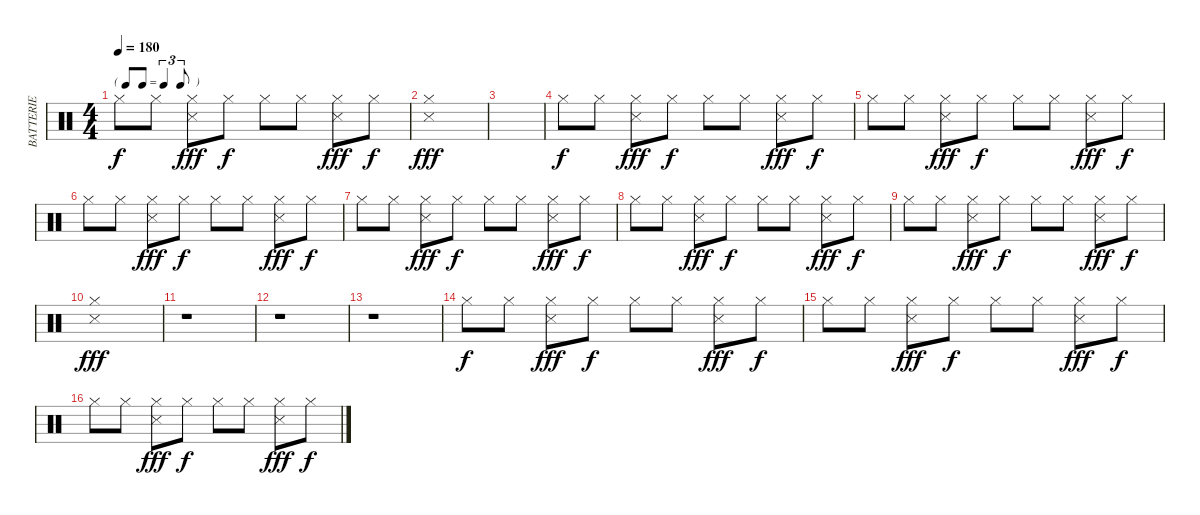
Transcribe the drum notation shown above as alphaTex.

\track ("BATTERIE" "BATTERIE") {instrument percussion}
\staff {score}
\articulation defaults
\ts (4 4)
\tf triplet8th
\tempo 180
\clef neutral
\ks c "Hi-Hat (closed)".8{dy f} "Hi-Hat (closed)".8
("Hi-Hat (closed)" "Snare (side stick) 3").8{dy fff} "Hi-Hat (closed)".8{dy f} "Hi-Hat (closed)".8 "Hi-Hat (closed)".8 ("Hi-Hat (closed)" "Snare (side stick) 3").8{dy fff} "Hi-Hat (closed)".8{dy f} |
("Hi-Hat (closed)" "Snare (side stick) 3").1{dy fff} |
|
"Hi-Hat (closed)".8{dy f} "Hi-Hat (closed)".8 ("Hi-Hat (closed)" "Snare (side stick) 3").8{dy fff} "Hi-Hat (closed)".8{dy f} "Hi-Hat (closed)".8 "Hi-Hat (closed)".8 ("Hi-Hat (closed)" "Snare (side stick) 3").8{dy fff} "Hi-Hat (closed)".8{dy f} |
"Hi-Hat (closed)".8 "Hi-Hat (closed)".8 ("Hi-Hat (closed)" "Snare (side stick) 3").8{dy fff} "Hi-Hat (closed)".8{dy f} "Hi-Hat (closed)".8 "Hi-Hat (closed)".8 ("Hi-Hat (closed)" "Snare (side stick) 3").8{dy fff} "Hi-Hat (closed)".8{dy f} |
"Hi-Hat (closed)".8 "Hi-Hat (closed)".8 ("Hi-Hat (closed)" "Snare (side stick) 3").8{dy fff} "Hi-Hat (closed)".8{dy f} "Hi-Hat (closed)".8 "Hi-Hat (closed)".8 ("Hi-Hat (closed)" "Snare (side stick) 3").8{dy fff} "Hi-Hat (closed)".8{dy f} |
"Hi-Hat (closed)".8 "Hi-Hat (closed)".8 ("Hi-Hat (closed)" "Snare (side stick) 3").8{dy fff} "Hi-Hat (closed)".8{dy f} "Hi-Hat (closed)".8 "Hi-Hat (closed)".8 ("Hi-Hat (closed)" "Snare (side stick) 3").8{dy fff} "Hi-Hat (closed)".8{dy f} |
"Hi-Hat (closed)".8 "Hi-Hat (closed)".8 ("Hi-Hat (closed)" "Snare (side stick) 3").8{dy fff} "Hi-Hat (closed)".8{dy f} "Hi-Hat (closed)".8 "Hi-Hat (closed)".8 ("Hi-Hat (closed)" "Snare (side stick) 3").8{dy fff} "Hi-Hat (closed)".8{dy f} |
"Hi-Hat (closed)".8 "Hi-Hat (closed)".8 ("Hi-Hat (closed)" "Snare (side stick) 3").8{dy fff} "Hi-Hat (closed)".8{dy f} "Hi-Hat (closed)".8 "Hi-Hat (closed)".8 ("Hi-Hat (closed)" "Snare (side stick) 3").8{dy fff} "Hi-Hat (closed)".8{dy f} |
("Hi-Hat (closed)" "Snare (side stick) 3").1{dy fff} |
r.1 |
r.1 |
r.1 |
"Hi-Hat (closed)".8{dy f} "Hi-Hat (closed)".8 ("Hi-Hat (closed)" "Snare (side stick) 3").8{dy fff} "Hi-Hat (closed)".8{dy f} "Hi-Hat (closed)".8 "Hi-Hat (closed)".8 ("Hi-Hat (closed)" "Snare (side stick) 3").8{dy fff} "Hi-Hat (closed)".8{dy f} |
"Hi-Hat (closed)".8 "Hi-Hat (closed)".8 ("Hi-Hat (closed)" "Snare (side stick) 3").8{dy fff} "Hi-Hat (closed)".8{dy f} "Hi-Hat (closed)".8 "Hi-Hat (closed)".8 ("Hi-Hat (closed)" "Snare (side stick) 3").8{dy fff} "Hi-Hat (closed)".8{dy f} |
"Hi-Hat (closed)".8 "Hi-Hat (closed)".8 ("Hi-Hat (closed)" "Snare (side stick) 3").8{dy fff} "Hi-Hat (closed)".8{dy f} "Hi-Hat (closed)".8 "Hi-Hat (closed)".8 ("Hi-Hat (closed)" "Snare (side stick) 3").8{dy fff} "Hi-Hat (closed)".8{dy f}
